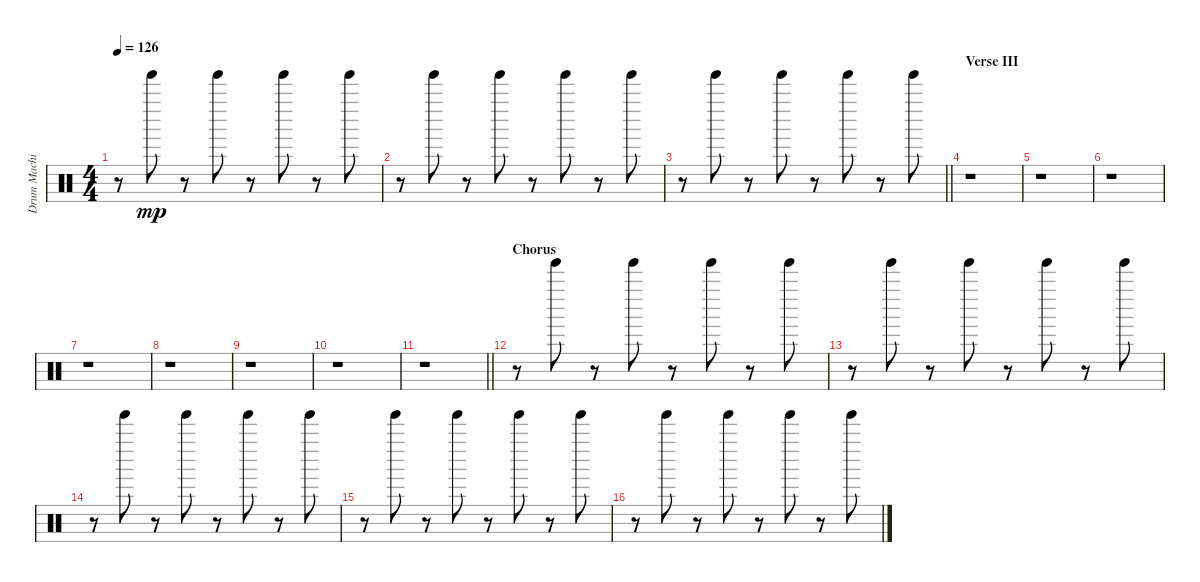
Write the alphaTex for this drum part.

\track ("Drum Machine" "Drum Machi") {instrument percussion}
\staff {score}
\articulation defaults
\ts (4 4)
\tempo 126
\clef neutral
\ks c
r.8{dy mp} "Tinkle Bell (hit)".8 r.8 "Tinkle Bell (hit)".8 r.8 "Tinkle Bell (hit)".8 r.8 "Tinkle Bell (hit)".8 |
r.8 "Tinkle Bell (hit)".8 r.8 "Tinkle Bell (hit)".8 r.8 "Tinkle Bell (hit)".8 r.8 "Tinkle Bell (hit)".8 |
\barLineRight lightlight
r.8 "Tinkle Bell (hit)".8 r.8 "Tinkle Bell (hit)".8 r.8 "Tinkle Bell (hit)".8 r.8 "Tinkle Bell (hit)".8 |
\section ("" "Verse III")
r.1 |
r.1 |
r.1 |
r.1 |
r.1 |
r.1 |
r.1 |
\barLineRight lightlight
r.1 |
\section ("" "Chorus")
r.8 "Tinkle Bell (hit)".8 r.8 "Tinkle Bell (hit)".8 r.8 "Tinkle Bell (hit)".8 r.8 "Tinkle Bell (hit)".8 |
r.8 "Tinkle Bell (hit)".8 r.8 "Tinkle Bell (hit)".8 r.8 "Tinkle Bell (hit)".8 r.8 "Tinkle Bell (hit)".8 |
r.8 "Tinkle Bell (hit)".8 r.8 "Tinkle Bell (hit)".8 r.8 "Tinkle Bell (hit)".8 r.8 "Tinkle Bell (hit)".8 |
r.8 "Tinkle Bell (hit)".8 r.8 "Tinkle Bell (hit)".8 r.8 "Tinkle Bell (hit)".8 r.8 "Tinkle Bell (hit)".8 |
r.8 "Tinkle Bell (hit)".8 r.8 "Tinkle Bell (hit)".8 r.8 "Tinkle Bell (hit)".8 r.8 "Tinkle Bell (hit)".8
